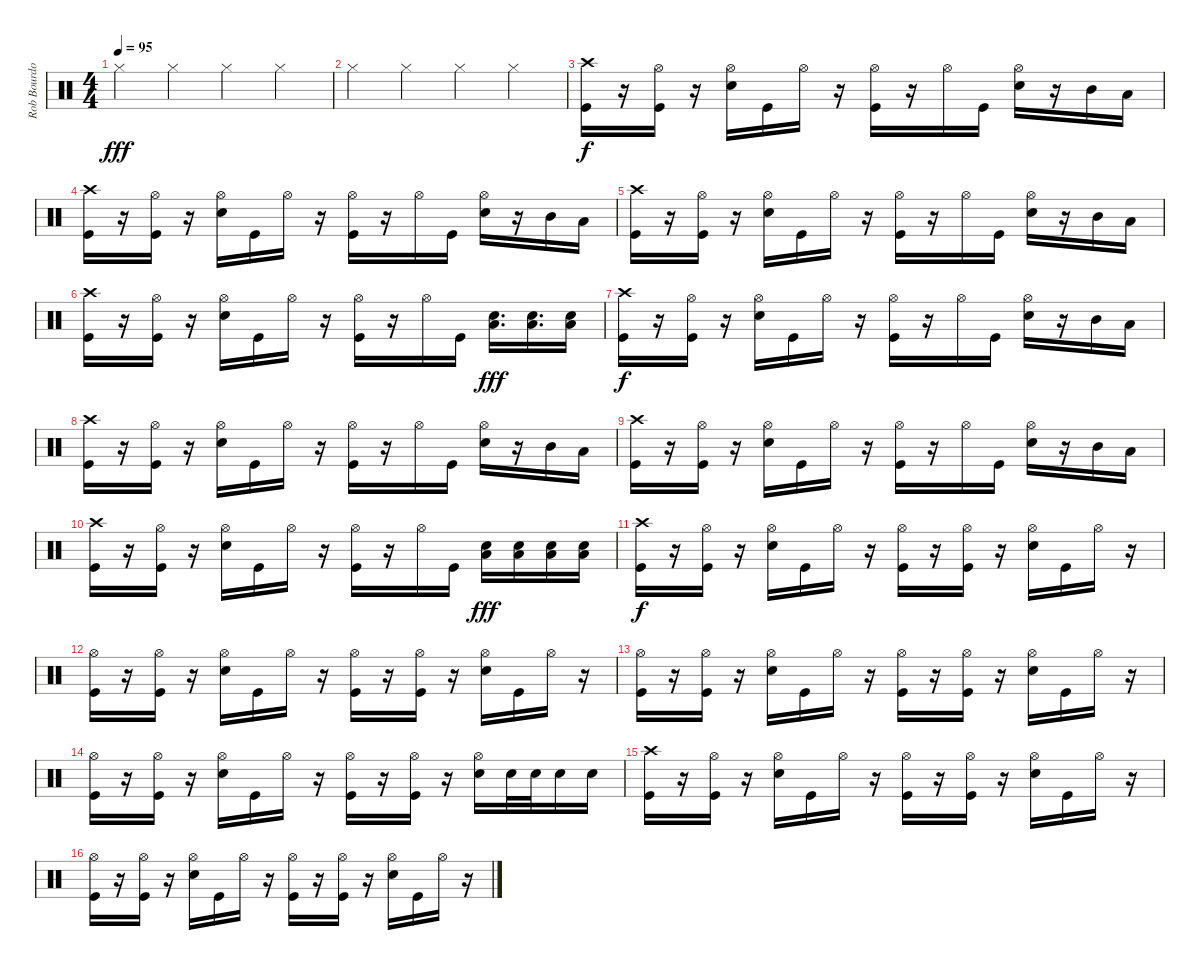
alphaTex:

\track ("Rob Bourdon" "Rob Bourdo") {instrument percussion}
\staff {score}
\articulation defaults
\ts (4 4)
\tempo 95
\clef neutral
\ks c "Hi-Hat (closed)".4{dy fff} "Hi-Hat (closed)".4 "Hi-Hat (closed)".4 "Hi-Hat (closed)".4
|
"Hi-Hat (closed)".4 "Hi-Hat (closed)".4 "Hi-Hat (closed)".4 "Hi-Hat (closed)".4 |
("Crash high (hit)" "Kick (hit)").16{dy f} r.16 ("Hi-Hat (open)" "Kick (hit)").16 r.16 ("Hi-Hat (open)" "Snare (hit) 2").16 "Kick (hit)".16 "Hi-Hat (open)".16 r.16 ("Hi-Hat (open)" "Kick (hit)").16 r.16 "Hi-Hat (open)".16 "Kick (hit)".16 ("Hi-Hat (open)" "Snare (hit) 2").16 r.16 "Mid Tom (hit)".16 "Low Tom (hit)".16 |
("Crash high (hit)" "Kick (hit)").16 r.16 ("Hi-Hat (open)" "Kick (hit)").16 r.16 ("Hi-Hat (open)" "Snare (hit) 2").16 "Kick (hit)".16 "Hi-Hat (open)".16 r.16 ("Hi-Hat (open)" "Kick (hit)").16 r.16 "Hi-Hat (open)".16 "Kick (hit)".16 ("Hi-Hat (open)" "Snare (hit) 2").16 r.16 "Mid Tom (hit)".16 "Low Tom (hit)".16 |
("Crash high (hit)" "Kick (hit)").16 r.16 ("Hi-Hat (open)" "Kick (hit)").16 r.16 ("Hi-Hat (open)" "Snare (hit) 2").16 "Kick (hit)".16 "Hi-Hat (open)".16 r.16 ("Hi-Hat (open)" "Kick (hit)").16 r.16 "Hi-Hat (open)".16 "Kick (hit)".16 ("Hi-Hat (open)" "Snare (hit) 2").16 r.16 "Mid Tom (hit)".16 "Low Tom (hit)".16 |
("Crash high (hit)" "Kick (hit)").16 r.16 ("Hi-Hat (open)" "Kick (hit)").16 r.16 ("Hi-Hat (open)" "Snare (hit) 2").16 "Kick (hit)".16 "Hi-Hat (open)".16 r.16 ("Hi-Hat (open)" "Kick (hit)").16 r.16 "Hi-Hat (open)".16 "Kick (hit)".16 ("Snare (hit) 2" "Low Tom (hit)").16{d dy fff} ("Snare (hit) 2" "Low Tom (hit)").16{d} ("Snare (hit) 2" "Low Tom (hit)").16 |
("Crash high (hit)" "Kick (hit)").16{dy f} r.16 ("Hi-Hat (open)" "Kick (hit)").16 r.16 ("Hi-Hat (open)" "Snare (hit) 2").16 "Kick (hit)".16 "Hi-Hat (open)".16 r.16 ("Hi-Hat (open)" "Kick (hit)").16 r.16 "Hi-Hat (open)".16 "Kick (hit)".16 ("Hi-Hat (open)" "Snare (hit) 2").16 r.16 "Mid Tom (hit)".16 "Low Tom (hit)".16 |
("Crash high (hit)" "Kick (hit)").16 r.16 ("Hi-Hat (open)" "Kick (hit)").16 r.16 ("Hi-Hat (open)" "Snare (hit) 2").16 "Kick (hit)".16 "Hi-Hat (open)".16 r.16 ("Hi-Hat (open)" "Kick (hit)").16 r.16 "Hi-Hat (open)".16 "Kick (hit)".16 ("Hi-Hat (open)" "Snare (hit) 2").16 r.16 "Mid Tom (hit)".16 "Low Tom (hit)".16 |
("Crash high (hit)" "Kick (hit)").16 r.16 ("Hi-Hat (open)" "Kick (hit)").16 r.16 ("Hi-Hat (open)" "Snare (hit) 2").16 "Kick (hit)".16 "Hi-Hat (open)".16 r.16 ("Hi-Hat (open)" "Kick (hit)").16 r.16 "Hi-Hat (open)".16 "Kick (hit)".16 ("Hi-Hat (open)" "Snare (hit) 2").16 r.16 "Mid Tom (hit)".16 "Low Tom (hit)".16 |
("Crash high (hit)" "Kick (hit)").16 r.16 ("Hi-Hat (open)" "Kick (hit)").16 r.16 ("Hi-Hat (open)" "Snare (hit) 2").16 "Kick (hit)".16 "Hi-Hat (open)".16 r.16 ("Hi-Hat (open)" "Kick (hit)").16 r.16 "Hi-Hat (open)".16 "Kick (hit)".16 ("Snare (hit) 2" "Low Tom (hit)").16{dy fff} ("Snare (hit) 2" "Low Tom (hit)").16 ("Snare (hit) 2" "Low Tom (hit)").16 ("Snare (hit) 2" "Low Tom (hit)").16 |
("Crash high (hit)" "Kick (hit)").16{dy f} r.16 ("Hi-Hat (open)" "Kick (hit)").16 r.16 ("Hi-Hat (open)" "Snare (hit) 2").16 "Kick (hit)".16 "Hi-Hat (open)".16 r.16 ("Hi-Hat (open)" "Kick (hit)").16 r.16 ("Hi-Hat (open)" "Kick (hit)").16 r.16 ("Hi-Hat (open)" "Snare (hit) 2").16 "Kick (hit)".16 "Hi-Hat (open)".16 r.16 |
("Hi-Hat (open)" "Kick (hit)").16 r.16 ("Hi-Hat (open)" "Kick (hit)").16 r.16 ("Hi-Hat (open)" "Snare (hit) 2").16 "Kick (hit)".16 "Hi-Hat (open)".16 r.16 ("Hi-Hat (open)" "Kick (hit)").16 r.16 ("Hi-Hat (open)" "Kick (hit)").16 r.16 ("Hi-Hat (open)" "Snare (hit) 2").16 "Kick (hit)".16 "Hi-Hat (open)".16 r.16 |
("Hi-Hat (open)" "Kick (hit)").16 r.16 ("Hi-Hat (open)" "Kick (hit)").16 r.16 ("Hi-Hat (open)" "Snare (hit) 2").16 "Kick (hit)".16 "Hi-Hat (open)".16 r.16 ("Hi-Hat (open)" "Kick (hit)").16 r.16 ("Hi-Hat (open)" "Kick (hit)").16 r.16 ("Hi-Hat (open)" "Snare (hit) 2").16 "Kick (hit)".16 "Hi-Hat (open)".16 r.16 |
("Hi-Hat (open)" "Kick (hit)").16 r.16 ("Hi-Hat (open)" "Kick (hit)").16 r.16 ("Hi-Hat (open)" "Snare (hit) 2").16 "Kick (hit)".16 "Hi-Hat (open)".16 r.16 ("Hi-Hat (open)" "Kick (hit)").16 r.16 ("Hi-Hat (open)" "Kick (hit)").16 r.16 ("Hi-Hat (open)" "Snare (hit) 2").16 "Snare (hit) 2".32 "Snare (hit) 2".32 "Snare (hit) 2".16 "Snare (hit) 2".16 |
("Crash high (hit)" "Kick (hit)").16 r.16 ("Hi-Hat (open)" "Kick (hit)").16 r.16 ("Hi-Hat (open)" "Snare (hit) 2").16 "Kick (hit)".16 "Hi-Hat (open)".16 r.16 ("Hi-Hat (open)" "Kick (hit)").16 r.16 ("Hi-Hat (open)" "Kick (hit)").16 r.16 ("Hi-Hat (open)" "Snare (hit) 2").16 "Kick (hit)".16 "Hi-Hat (open)".16 r.16 |
("Hi-Hat (open)" "Kick (hit)").16 r.16 ("Hi-Hat (open)" "Kick (hit)").16 r.16 ("Hi-Hat (open)" "Snare (hit) 2").16 "Kick (hit)".16 "Hi-Hat (open)".16 r.16 ("Hi-Hat (open)" "Kick (hit)").16 r.16 ("Hi-Hat (open)" "Kick (hit)").16 r.16 ("Hi-Hat (open)" "Snare (hit) 2").16 "Kick (hit)".16 "Hi-Hat (open)".16 r.16
